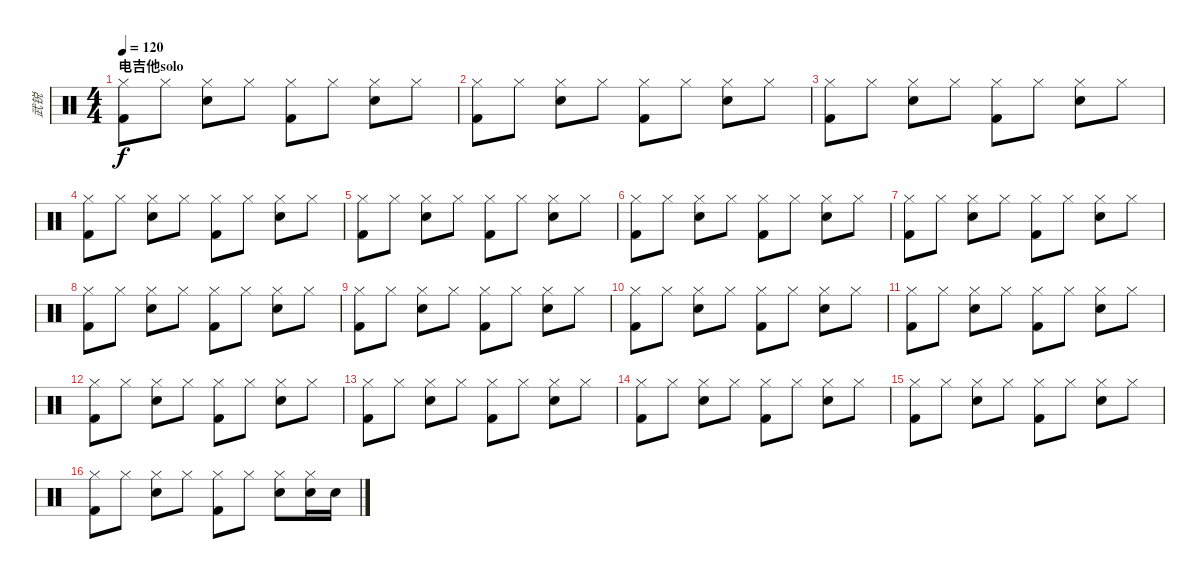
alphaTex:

\track ("武锐" "武锐") {instrument percussion}
\staff {score}
\articulation defaults
\ts (4 4)
\section ("" "电吉他solo")
\tempo 120
\clef neutral
\ks c
("Hi-Hat (closed)" "Kick (hit) 2").8{dy f} "Hi-Hat (closed)".8 ("Hi-Hat (closed)" "Snare (hit) 2").8 "Hi-Hat (closed)".8 ("Hi-Hat (closed)" "Kick (hit) 2").8 "Hi-Hat (closed)".8 ("Hi-Hat (closed)" "Snare (hit) 2").8 "Hi-Hat (closed)".8 |
("Hi-Hat (closed)" "Kick (hit) 2").8 "Hi-Hat (closed)".8 ("Hi-Hat (closed)" "Snare (hit) 2").8 "Hi-Hat (closed)".8 ("Hi-Hat (closed)" "Kick (hit) 2").8 "Hi-Hat (closed)".8 ("Hi-Hat (closed)" "Snare (hit) 2").8 "Hi-Hat (closed)".8 |
("Hi-Hat (closed)" "Kick (hit) 2").8 "Hi-Hat (closed)".8 ("Hi-Hat (closed)" "Snare (hit) 2").8 "Hi-Hat (closed)".8 ("Hi-Hat (closed)" "Kick (hit) 2").8 "Hi-Hat (closed)".8 ("Hi-Hat (closed)" "Snare (hit) 2").8 "Hi-Hat (closed)".8 |
("Hi-Hat (closed)" "Kick (hit) 2").8 "Hi-Hat (closed)".8 ("Hi-Hat (closed)" "Snare (hit) 2").8 "Hi-Hat (closed)".8 ("Hi-Hat (closed)" "Kick (hit) 2").8 "Hi-Hat (closed)".8 ("Hi-Hat (closed)" "Snare (hit) 2").8 "Hi-Hat (closed)".8 |
("Hi-Hat (closed)" "Kick (hit) 2").8 "Hi-Hat (closed)".8 ("Hi-Hat (closed)" "Snare (hit) 2").8 "Hi-Hat (closed)".8 ("Hi-Hat (closed)" "Kick (hit) 2").8 "Hi-Hat (closed)".8 ("Hi-Hat (closed)" "Snare (hit) 2").8 "Hi-Hat (closed)".8 |
("Hi-Hat (closed)" "Kick (hit) 2").8 "Hi-Hat (closed)".8 ("Hi-Hat (closed)" "Snare (hit) 2").8 "Hi-Hat (closed)".8 ("Hi-Hat (closed)" "Kick (hit) 2").8 "Hi-Hat (closed)".8 ("Hi-Hat (closed)" "Snare (hit) 2").8 "Hi-Hat (closed)".8 |
("Hi-Hat (closed)" "Kick (hit) 2").8 "Hi-Hat (closed)".8 ("Hi-Hat (closed)" "Snare (hit) 2").8 "Hi-Hat (closed)".8 ("Hi-Hat (closed)" "Kick (hit) 2").8 "Hi-Hat (closed)".8 ("Hi-Hat (closed)" "Snare (hit) 2").8 "Hi-Hat (closed)".8 |
("Hi-Hat (closed)" "Kick (hit) 2").8 "Hi-Hat (closed)".8 ("Hi-Hat (closed)" "Snare (hit) 2").8 "Hi-Hat (closed)".8 ("Hi-Hat (closed)" "Kick (hit) 2").8 "Hi-Hat (closed)".8 ("Hi-Hat (closed)" "Snare (hit) 2").8 "Hi-Hat (closed)".8 |
("Hi-Hat (closed)" "Kick (hit) 2").8 "Hi-Hat (closed)".8 ("Hi-Hat (closed)" "Snare (hit) 2").8 "Hi-Hat (closed)".8 ("Hi-Hat (closed)" "Kick (hit) 2").8 "Hi-Hat (closed)".8 ("Hi-Hat (closed)" "Snare (hit) 2").8 "Hi-Hat (closed)".8 |
("Hi-Hat (closed)" "Kick (hit) 2").8 "Hi-Hat (closed)".8 ("Hi-Hat (closed)" "Snare (hit) 2").8 "Hi-Hat (closed)".8 ("Hi-Hat (closed)" "Kick (hit) 2").8 "Hi-Hat (closed)".8 ("Hi-Hat (closed)" "Snare (hit) 2").8 "Hi-Hat (closed)".8 |
("Hi-Hat (closed)" "Kick (hit) 2").8 "Hi-Hat (closed)".8 ("Hi-Hat (closed)" "Snare (hit) 2").8 "Hi-Hat (closed)".8 ("Hi-Hat (closed)" "Kick (hit) 2").8 "Hi-Hat (closed)".8 ("Hi-Hat (closed)" "Snare (hit) 2").8 "Hi-Hat (closed)".8 |
("Hi-Hat (closed)" "Kick (hit) 2").8 "Hi-Hat (closed)".8 ("Hi-Hat (closed)" "Snare (hit) 2").8 "Hi-Hat (closed)".8 ("Hi-Hat (closed)" "Kick (hit) 2").8 "Hi-Hat (closed)".8 ("Hi-Hat (closed)" "Snare (hit) 2").8 "Hi-Hat (closed)".8 |
("Hi-Hat (closed)" "Kick (hit) 2").8 "Hi-Hat (closed)".8 ("Hi-Hat (closed)" "Snare (hit) 2").8 "Hi-Hat (closed)".8 ("Hi-Hat (closed)" "Kick (hit) 2").8 "Hi-Hat (closed)".8 ("Hi-Hat (closed)" "Snare (hit) 2").8 "Hi-Hat (closed)".8 |
("Hi-Hat (closed)" "Kick (hit) 2").8 "Hi-Hat (closed)".8 ("Hi-Hat (closed)" "Snare (hit) 2").8 "Hi-Hat (closed)".8 ("Hi-Hat (closed)" "Kick (hit) 2").8 "Hi-Hat (closed)".8 ("Hi-Hat (closed)" "Snare (hit) 2").8 "Hi-Hat (closed)".8 |
("Hi-Hat (closed)" "Kick (hit) 2").8 "Hi-Hat (closed)".8 ("Hi-Hat (closed)" "Snare (hit) 2").8 "Hi-Hat (closed)".8 ("Hi-Hat (closed)" "Kick (hit) 2").8 "Hi-Hat (closed)".8 ("Hi-Hat (closed)" "Snare (hit) 2").8 "Hi-Hat (closed)".8 |
("Hi-Hat (closed)" "Kick (hit) 2").8 "Hi-Hat (closed)".8 ("Hi-Hat (closed)" "Snare (hit) 2").8 "Hi-Hat (closed)".8 ("Hi-Hat (closed)" "Kick (hit) 2").8 "Hi-Hat (closed)".8 ("Hi-Hat (closed)" "Snare (hit) 2").8 ("Hi-Hat (closed)" "Snare (hit) 2").16 "Snare (hit) 2".16
